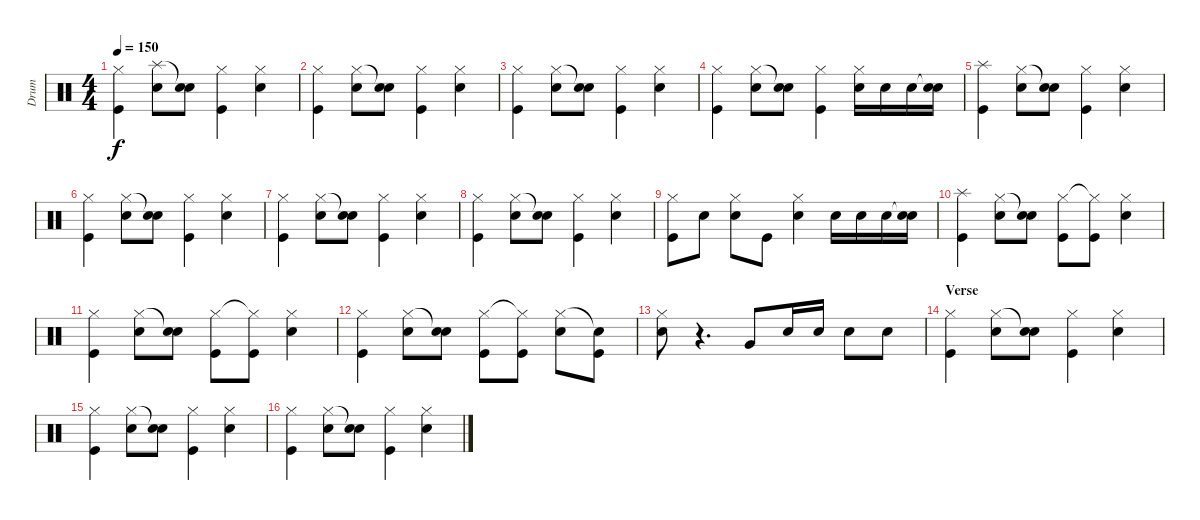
\track ("Drum" "Drum") {instrument percussion}
\staff {score}
\articulation defaults
\ts (4 4)
\tempo 150
\clef neutral
\ks c
("Hi-Hat (closed)" "Kick (hit)").4{dy f} ("Splash (hit)" "Snare (hit) 2").8 ("Snare (hit)"{t} "Snare (hit) 2").8 ("Hi-Hat (closed)" "Kick (hit)").4 ("Hi-Hat (closed)" "Snare (hit) 2").4 |
("Hi-Hat (closed)" "Kick (hit)").4 ("Hi-Hat (closed)" "Snare (hit) 2").8 ("Snare (hit)"{t} "Snare (hit) 2").8 ("Hi-Hat (closed)" "Kick (hit)").4 ("Hi-Hat (closed)" "Snare (hit) 2").4 |
("Hi-Hat (closed)" "Kick (hit)").4 ("Hi-Hat (closed)" "Snare (hit) 2").8 ("Snare (hit)"{t} "Snare (hit) 2").8 ("Hi-Hat (closed)" "Kick (hit)").4 ("Hi-Hat (closed)" "Snare (hit) 2").4 |
("Hi-Hat (closed)" "Kick (hit)").4 ("Hi-Hat (closed)" "Snare (hit) 2").8 ("Snare (hit)"{t} "Snare (hit) 2").8 ("Hi-Hat (closed)" "Kick (hit)").4 ("Hi-Hat (closed)" "Snare (hit) 2").16 "Snare (hit) 2".16 "Snare (hit) 2".16 ("Snare (hit)"{t} "Snare (hit) 2").16 |
("Splash (hit)" "Kick (hit)").4 ("Hi-Hat (closed)" "Snare (hit) 2").8 ("Snare (hit)"{t} "Snare (hit) 2").8 ("Hi-Hat (closed)" "Kick (hit)").4 ("Hi-Hat (closed)" "Snare (hit) 2").4 |
("Hi-Hat (closed)" "Kick (hit)").4 ("Hi-Hat (closed)" "Snare (hit) 2").8 ("Snare (hit)"{t} "Snare (hit) 2").8 ("Hi-Hat (closed)" "Kick (hit)").4 ("Hi-Hat (closed)" "Snare (hit) 2").4 |
("Hi-Hat (closed)" "Kick (hit)").4 ("Hi-Hat (closed)" "Snare (hit) 2").8 ("Snare (hit)"{t} "Snare (hit) 2").8 ("Hi-Hat (closed)" "Kick (hit)").4 ("Hi-Hat (closed)" "Snare (hit) 2").4 |
("Hi-Hat (closed)" "Kick (hit)").4 ("Hi-Hat (closed)" "Snare (hit) 2").8 ("Snare (hit)"{t} "Snare (hit) 2").8 ("Hi-Hat (closed)" "Kick (hit)").4 ("Hi-Hat (closed)" "Snare (hit) 2").4 |
("Hi-Hat (closed)" "Kick (hit)").8 "Snare (hit) 2".8 ("Hi-Hat (closed)" "Snare (hit) 2").8 "Kick (hit)".8 ("Hi-Hat (closed)" "Snare (hit) 2").4 "Snare (hit) 2".16 "Snare (hit) 2".16 "Snare (hit) 2".16 ("Snare (hit)"{t} "Snare (hit) 2").16 |
("Splash (hit)" "Kick (hit)").4 ("Hi-Hat (closed)" "Snare (hit) 2").8 ("Snare (hit)"{t} "Snare (hit) 2").8 ("Hi-Hat (closed)" "Kick (hit)").8 ("Hi-Hat (closed)"{t} "Kick (hit)").8 ("Hi-Hat (closed)" "Snare (hit) 2").4 |
("Hi-Hat (closed)" "Kick (hit)").4 ("Hi-Hat (closed)" "Snare (hit) 2").8 ("Snare (hit)"{t} "Snare (hit) 2").8 ("Hi-Hat (closed)" "Kick (hit)").8 ("Hi-Hat (closed)"{t} "Kick (hit)").8 ("Hi-Hat (closed)" "Snare (hit) 2").4 |
("Hi-Hat (closed)" "Kick (hit)").4 ("Hi-Hat (closed)" "Snare (hit) 2").8 ("Snare (hit)"{t} "Snare (hit) 2").8 ("Hi-Hat (closed)" "Kick (hit)").8 ("Hi-Hat (closed)"{t} "Kick (hit)").8 ("Hi-Hat (closed)" "Snare (hit) 2").8 ("Snare (hit)"{t} "Kick (hit)").8 |
("Hi-Hat (closed)" "Snare (hit) 2").8 r.4{d} "Very Low Tom (hit)".8 "Snare (hit) 2".16 "Snare (hit) 2".16 "Snare (hit) 2".8 "Snare (hit) 2".8 |
\section ("" "Verse")
("Hi-Hat (closed)" "Kick (hit)").4 ("Hi-Hat (closed)" "Snare (hit) 2").8 ("Snare (hit)"{t} "Snare (hit) 2").8 ("Hi-Hat (closed)" "Kick (hit)").4 ("Hi-Hat (closed)" "Snare (hit) 2").4 |
("Hi-Hat (closed)" "Kick (hit)").4 ("Hi-Hat (closed)" "Snare (hit) 2").8 ("Snare (hit)"{t} "Snare (hit) 2").8 ("Hi-Hat (closed)" "Kick (hit)").4 ("Hi-Hat (closed)" "Snare (hit) 2").4 |
("Hi-Hat (closed)" "Kick (hit)").4 ("Hi-Hat (closed)" "Snare (hit) 2").8 ("Snare (hit)"{t} "Snare (hit) 2").8 ("Hi-Hat (closed)" "Kick (hit)").4 ("Hi-Hat (closed)" "Snare (hit) 2").4
